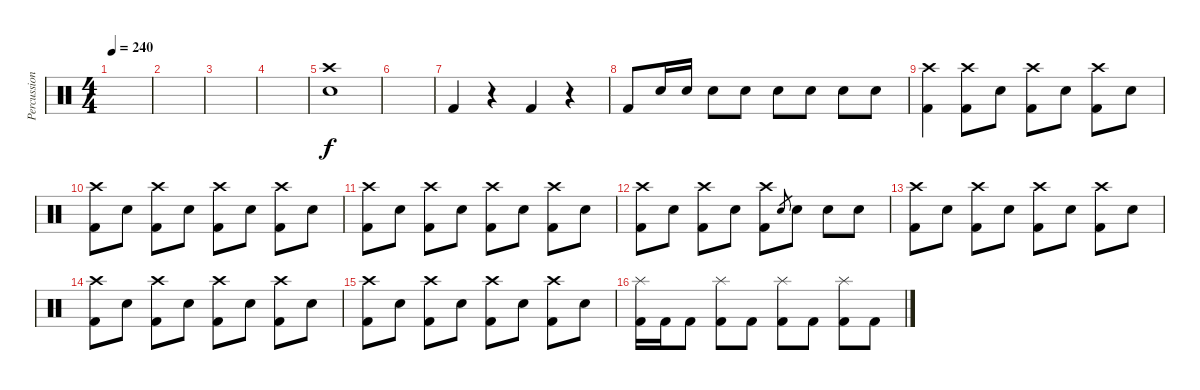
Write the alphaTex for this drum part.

\track ("Percussion" "Percussion") {instrument percussion}
\staff {score}
\articulation defaults
\ts (4 4)
\tempo 240
\clef neutral
\ks c
|
|
|
|
("Crash high (hit)" "Electric Snare (hit)").1 |
|
"Kick (hit) 2".4 r.4 "Kick (hit) 2".4 r.4 |
"Kick (hit) 2".8 "Electric Snare (hit)".16 "Electric Snare (hit)".16 "Electric Snare (hit)".8 "Electric Snare (hit)".8 "Electric Snare (hit)".8 "Electric Snare (hit)".8 "Electric Snare (hit)".8 "Electric Snare (hit)".8 |
("Crash high (hit)" "Kick (hit) 2").4 ("Crash high (hit)" "Kick (hit) 2").8 "Electric Snare (hit)".8 ("Crash high (hit)" "Kick (hit) 2").8 "Electric Snare (hit)".8 ("Crash high (hit)" "Kick (hit) 2").8 "Electric Snare (hit)".8 |
("Crash high (hit)" "Kick (hit) 2").8 "Electric Snare (hit)".8 ("Crash high (hit)" "Kick (hit) 2").8 "Electric Snare (hit)".8 ("Crash high (hit)" "Kick (hit) 2").8 "Electric Snare (hit)".8 ("Crash high (hit)" "Kick (hit) 2").8 "Electric Snare (hit)".8 |
("Crash high (hit)" "Kick (hit) 2").8 "Electric Snare (hit)".8 ("Crash high (hit)" "Kick (hit) 2").8 "Electric Snare (hit)".8 ("Crash high (hit)" "Kick (hit) 2").8 "Electric Snare (hit)".8 ("Crash high (hit)" "Kick (hit) 2").8 "Electric Snare (hit)".8 |
("Crash high (hit)" "Kick (hit) 2").8 "Electric Snare (hit)".8 ("Crash high (hit)" "Kick (hit) 2").8 "Electric Snare (hit)".8 ("Crash high (hit)" "Kick (hit) 2").8 "Electric Snare (hit)".8{gr} "Electric Snare (hit)".8 "Electric Snare (hit)".8 "Electric Snare (hit)".8 |
("Crash high (hit)" "Kick (hit) 2").8 "Electric Snare (hit)".8 ("Crash high (hit)" "Kick (hit) 2").8 "Electric Snare (hit)".8 ("Crash high (hit)" "Kick (hit) 2").8 "Electric Snare (hit)".8 ("Crash high (hit)" "Kick (hit) 2").8 "Electric Snare (hit)".8 |
("Crash high (hit)" "Kick (hit) 2").8 "Electric Snare (hit)".8 ("Crash high (hit)" "Kick (hit) 2").8 "Electric Snare (hit)".8 ("Crash high (hit)" "Kick (hit) 2").8 "Electric Snare (hit)".8 ("Crash high (hit)" "Kick (hit) 2").8 "Electric Snare (hit)".8 |
("Crash high (hit)" "Kick (hit) 2").8 "Electric Snare (hit)".8 ("Crash high (hit)" "Kick (hit) 2").8 "Electric Snare (hit)".8 ("Crash high (hit)" "Kick (hit) 2").8 "Electric Snare (hit)".8 ("Crash high (hit)" "Kick (hit) 2").8 "Electric Snare (hit)".8 |
("Splash (hit)" "Kick (hit) 2").16 "Kick (hit) 2".16 "Kick (hit) 2".8 ("Splash (hit)" "Kick (hit) 2").8 "Kick (hit) 2".8 ("Splash (hit)" "Kick (hit) 2").8 "Kick (hit) 2".8 ("Splash (hit)" "Kick (hit) 2").8 "Kick (hit) 2".8
